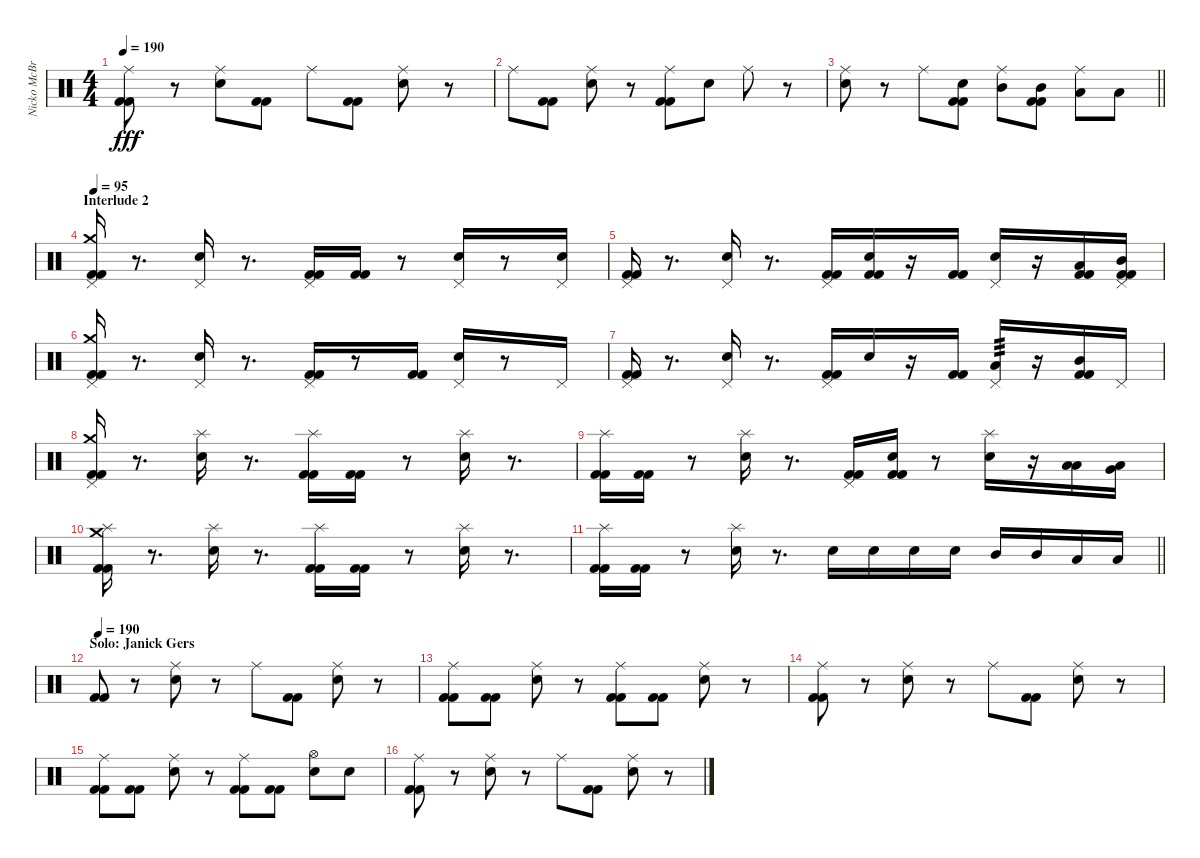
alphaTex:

\track ("Nicko McBrain" "Nicko McBr") {instrument percussion}
\staff {score}
\articulation defaults
\ts (4 4)
\tempo 190
\clef neutral
\ks c
("Ride (middle)" "Kick (hit) 2" "Kick (hit) 2").8{dy fff} r.8 ("Snare (hit) 2" "Ride (middle)").8 ("Kick (hit) 2" "Kick (hit) 2").8 "Ride (middle)".8 ("Kick (hit) 2" "Kick (hit) 2").8 ("Snare (hit) 2" "Ride (middle)").8 r.8 |
"Ride (middle)".8 ("Kick (hit) 2" "Kick (hit) 2").8 ("Snare (hit) 2" "Ride (middle)").8 r.8 ("Ride (middle)" "Kick (hit) 2" "Kick (hit) 2").8 "Snare (hit) 2".8 "Ride (middle)".8 r.8 |
\barLineRight lightlight
("Snare (hit) 2" "Ride (middle)").8 r.8 "Ride (middle)".8 ("Snare (hit) 2" "Kick (hit) 2" "Kick (hit) 2").8 ("Mid Tom (hit)" "Ride (middle)").8 ("Mid Tom (hit)" "Kick (hit) 2" "Kick (hit) 2").8 ("Low Tom (hit)" "Ride (middle)").8 "Low Tom (hit)".8 |
\section ("" "Interlude 2")
\tempo 95
("Crash medium (hit)" "Pedal Hi-Hat (hit)" "Kick (hit) 2" "Kick (hit) 2").16 r.8{d} ("Snare (hit) 2" "Pedal Hi-Hat (hit)").16 r.8{d} ("Pedal Hi-Hat (hit)" "Kick (hit) 2" "Kick (hit) 2").16 ("Kick (hit) 2" "Kick (hit) 2").16 r.8 ("Snare (hit) 2" "Pedal Hi-Hat (hit)").16 r.8 ("Snare (hit) 2" "Pedal Hi-Hat (hit)").16 |
("Pedal Hi-Hat (hit)" "Kick (hit) 2" "Kick (hit) 2").16 r.8{d} ("Snare (hit) 2" "Pedal Hi-Hat (hit)").16 r.8{d} ("Pedal Hi-Hat (hit)" "Kick (hit) 2" "Kick (hit) 2").16 ("Snare (hit) 2" "Kick (hit) 2" "Kick (hit) 2").16 r.16 ("Kick (hit) 2" "Kick (hit) 2").16 ("Snare (hit) 2" "Pedal Hi-Hat (hit)").16 r.16 ("Low Tom (hit)" "Kick (hit) 2" "Kick (hit) 2").16 ("Mid Tom (hit)" "Pedal Hi-Hat (hit)" "Kick (hit) 2" "Kick (hit) 2").16 |
("Crash medium (hit)" "Pedal Hi-Hat (hit)" "Kick (hit) 2" "Kick (hit) 2").16 r.8{d} ("Snare (hit) 2" "Pedal Hi-Hat (hit)").16 r.8{d} ("Pedal Hi-Hat (hit)" "Kick (hit) 2" "Kick (hit) 2").16 r.8 ("Kick (hit) 2" "Kick (hit) 2").16 ("Snare (hit) 2" "Pedal Hi-Hat (hit)").16 r.8 "Pedal Hi-Hat (hit)".16 |
("Pedal Hi-Hat (hit)" "Kick (hit) 2" "Kick (hit) 2").16 r.8{d} ("Snare (hit) 2" "Pedal Hi-Hat (hit)").16 r.8{d} ("Pedal Hi-Hat (hit)" "Kick (hit) 2" "Kick (hit) 2").16 "Snare (hit) 2".16 r.16 ("Kick (hit) 2" "Kick (hit) 2").16 ("Low Tom (hit)" "Pedal Hi-Hat (hit)").16{tp 3} r.16 ("Mid Tom (hit)" "Kick (hit) 2" "Kick (hit) 2").16 "Pedal Hi-Hat (hit)".16 |
("Crash medium (hit)" "Pedal Hi-Hat (hit)" "Kick (hit) 2" "Kick (hit) 2").16 r.8{d} ("Snare (hit) 2" "Splash (hit)").16 r.8{d} ("Splash (hit)" "Kick (hit) 2" "Kick (hit) 2").16 ("Kick (hit) 2" "Kick (hit) 2").16 r.8 ("Snare (hit) 2" "Splash (hit)").16 r.8{d} |
("Splash (hit)" "Kick (hit) 2" "Kick (hit) 2").16 ("Kick (hit) 2" "Kick (hit) 2").16 r.8 ("Snare (hit) 2" "Splash (hit)").16 r.8{d} ("Pedal Hi-Hat (hit)" "Kick (hit) 2" "Kick (hit) 2").16 ("Snare (hit) 2" "Kick (hit) 2" "Kick (hit) 2").16 r.8 ("Snare (hit) 2" "Splash (hit)").16 r.16 ("Low Tom (hit)" "Low Tom (hit)").16 ("Very Low Tom (hit)" "Low Tom (hit)").16 |
("Crash medium (hit)" "Splash (hit)" "Kick (hit) 2" "Kick (hit) 2").16 r.8{d} ("Snare (hit) 2" "Splash (hit)").16 r.8{d} ("Splash (hit)" "Kick (hit) 2" "Kick (hit) 2").16 ("Kick (hit) 2" "Kick (hit) 2").16 r.8 ("Snare (hit) 2" "Splash (hit)").16 r.8{d} |
\barLineRight lightlight
("Splash (hit)" "Kick (hit) 2" "Kick (hit) 2").16 ("Kick (hit) 2" "Kick (hit) 2").16 r.8 ("Snare (hit) 2" "Splash (hit)").16 r.8{d} "Snare (hit) 2".16 "Snare (hit) 2".16 "Snare (hit) 2".16 "Snare (hit) 2".16 "Mid Tom (hit)".16 "Mid Tom (hit)".16 "Low Tom (hit)".16 "Low Tom (hit)".16 |
\section ("" "Solo: Janick Gers")
\tempo 190
("Kick (hit) 2" "Kick (hit) 2").8 r.8 ("Snare (hit) 2" "Ride (middle)").8 r.8 "Ride (middle)".8 ("Kick (hit) 2" "Kick (hit) 2").8 ("Snare (hit) 2" "Ride (middle)").8 r.8 |
("Ride (middle)" "Kick (hit) 2" "Kick (hit) 2").8 ("Kick (hit) 2" "Kick (hit) 2").8 ("Snare (hit) 2" "Ride (middle)").8 r.8 ("Ride (middle)" "Kick (hit) 2" "Kick (hit) 2").8 ("Kick (hit) 2" "Kick (hit) 2").8 ("Snare (hit) 2" "Ride (middle)").8 r.8 |
("Ride (middle)" "Kick (hit) 2" "Kick (hit) 2").8 r.8 ("Snare (hit) 2" "Ride (middle)").8 r.8 "Ride (middle)".8 ("Kick (hit) 2" "Kick (hit) 2").8 ("Snare (hit) 2" "Ride (middle)").8 r.8 |
("Ride (middle)" "Kick (hit) 2" "Kick (hit) 2").8 ("Kick (hit) 2" "Kick (hit) 2").8 ("Snare (hit) 2" "Ride (middle)").8 r.8 ("Ride (middle)" "Kick (hit) 2" "Kick (hit) 2").8 ("Kick (hit) 2" "Kick (hit) 2").8 ("Snare (hit) 2" "Hi-Hat (open)").8 "Snare (hit) 2".8 |
("Ride (middle)" "Kick (hit) 2" "Kick (hit) 2").8 r.8 ("Snare (hit) 2" "Ride (middle)").8 r.8 "Ride (middle)".8 ("Kick (hit) 2" "Kick (hit) 2").8 ("Snare (hit) 2" "Ride (middle)").8 r.8
